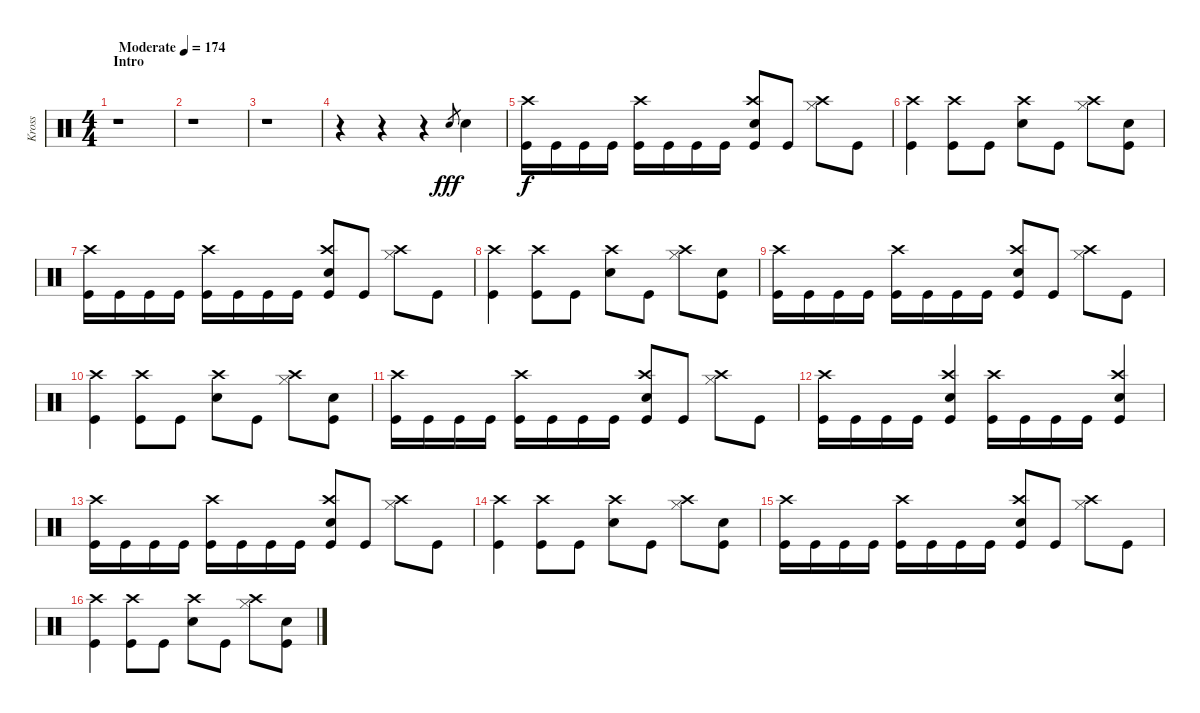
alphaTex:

\track ("Kross" "Kross") {instrument percussion}
\staff {score}
\articulation defaults
\ts (4 4)
\section ("" "Intro")
\tempo (174 "Moderate")
\clef neutral
\ks c
r.1{dy fff} |
r.1 |
r.1 |
r.4 r.4 r.4 "Snare (hit) 2".8{gr} "Snare (hit) 2".4 |
("Crash high (hit)" "Kick (hit)").16{dy f} "Kick (hit)".16 "Kick (hit)".16 "Kick (hit)".16 ("Crash high (hit)" "Kick (hit)").16 "Kick (hit)".16 "Kick (hit)".16 "Kick (hit)".16 ("Crash high (hit)" "Snare (hit) 2" "Kick (hit)").8 "Kick (hit)".8 ("Crash high (hit)" "Hi-Hat (closed)").8 "Kick (hit)".8 |
("Crash high (hit)" "Kick (hit)").4 ("Crash high (hit)" "Kick (hit)").8 "Kick (hit)".8 ("Crash high (hit)" "Snare (hit) 2").8 "Kick (hit)".8 ("Crash high (hit)" "Hi-Hat (closed)").8 ("Snare (hit) 2" "Kick (hit)").8 |
("Crash high (hit)" "Kick (hit)").16 "Kick (hit)".16 "Kick (hit)".16 "Kick (hit)".16 ("Crash high (hit)" "Kick (hit)").16 "Kick (hit)".16 "Kick (hit)".16 "Kick (hit)".16 ("Crash high (hit)" "Snare (hit) 2" "Kick (hit)").8 "Kick (hit)".8 ("Crash high (hit)" "Hi-Hat (closed)").8 "Kick (hit)".8 |
("Crash high (hit)" "Kick (hit)").4 ("Crash high (hit)" "Kick (hit)").8 "Kick (hit)".8 ("Crash high (hit)" "Snare (hit) 2").8 "Kick (hit)".8 ("Crash high (hit)" "Hi-Hat (closed)").8 ("Snare (hit) 2" "Kick (hit)").8 |
("Crash high (hit)" "Kick (hit)").16 "Kick (hit)".16 "Kick (hit)".16 "Kick (hit)".16 ("Crash high (hit)" "Kick (hit)").16 "Kick (hit)".16 "Kick (hit)".16 "Kick (hit)".16 ("Crash high (hit)" "Snare (hit) 2" "Kick (hit)").8 "Kick (hit)".8 ("Crash high (hit)" "Hi-Hat (closed)").8 "Kick (hit)".8 |
("Crash high (hit)" "Kick (hit)").4 ("Crash high (hit)" "Kick (hit)").8 "Kick (hit)".8 ("Crash high (hit)" "Snare (hit) 2").8 "Kick (hit)".8 ("Crash high (hit)" "Hi-Hat (closed)").8 ("Snare (hit) 2" "Kick (hit)").8 |
("Crash high (hit)" "Kick (hit)").16 "Kick (hit)".16 "Kick (hit)".16 "Kick (hit)".16 ("Crash high (hit)" "Kick (hit)").16 "Kick (hit)".16 "Kick (hit)".16 "Kick (hit)".16 ("Crash high (hit)" "Snare (hit) 2" "Kick (hit)").8 "Kick (hit)".8 ("Crash high (hit)" "Hi-Hat (closed)").8 "Kick (hit)".8 |
("Crash high (hit)" "Kick (hit)").16 "Kick (hit)".16 "Kick (hit)".16 "Kick (hit)".16 ("Crash high (hit)" "Snare (hit) 2" "Kick (hit)").4 ("Crash high (hit)" "Kick (hit)").16 "Kick (hit)".16 "Kick (hit)".16 "Kick (hit)".16 ("Crash high (hit)" "Snare (hit) 2" "Kick (hit)").4 |
("Crash high (hit)" "Kick (hit)").16 "Kick (hit)".16 "Kick (hit)".16 "Kick (hit)".16 ("Crash high (hit)" "Kick (hit)").16 "Kick (hit)".16 "Kick (hit)".16 "Kick (hit)".16 ("Crash high (hit)" "Snare (hit) 2" "Kick (hit)").8 "Kick (hit)".8 ("Crash high (hit)" "Hi-Hat (closed)").8 "Kick (hit)".8 |
("Crash high (hit)" "Kick (hit)").4 ("Crash high (hit)" "Kick (hit)").8 "Kick (hit)".8 ("Crash high (hit)" "Snare (hit) 2").8 "Kick (hit)".8 ("Crash high (hit)" "Hi-Hat (closed)").8 ("Snare (hit) 2" "Kick (hit)").8 |
("Crash high (hit)" "Kick (hit)").16 "Kick (hit)".16 "Kick (hit)".16 "Kick (hit)".16 ("Crash high (hit)" "Kick (hit)").16 "Kick (hit)".16 "Kick (hit)".16 "Kick (hit)".16 ("Crash high (hit)" "Snare (hit) 2" "Kick (hit)").8 "Kick (hit)".8 ("Crash high (hit)" "Hi-Hat (closed)").8 "Kick (hit)".8 |
("Crash high (hit)" "Kick (hit)").4 ("Crash high (hit)" "Kick (hit)").8 "Kick (hit)".8 ("Crash high (hit)" "Snare (hit) 2").8 "Kick (hit)".8 ("Crash high (hit)" "Hi-Hat (closed)").8 ("Snare (hit) 2" "Kick (hit)").8
